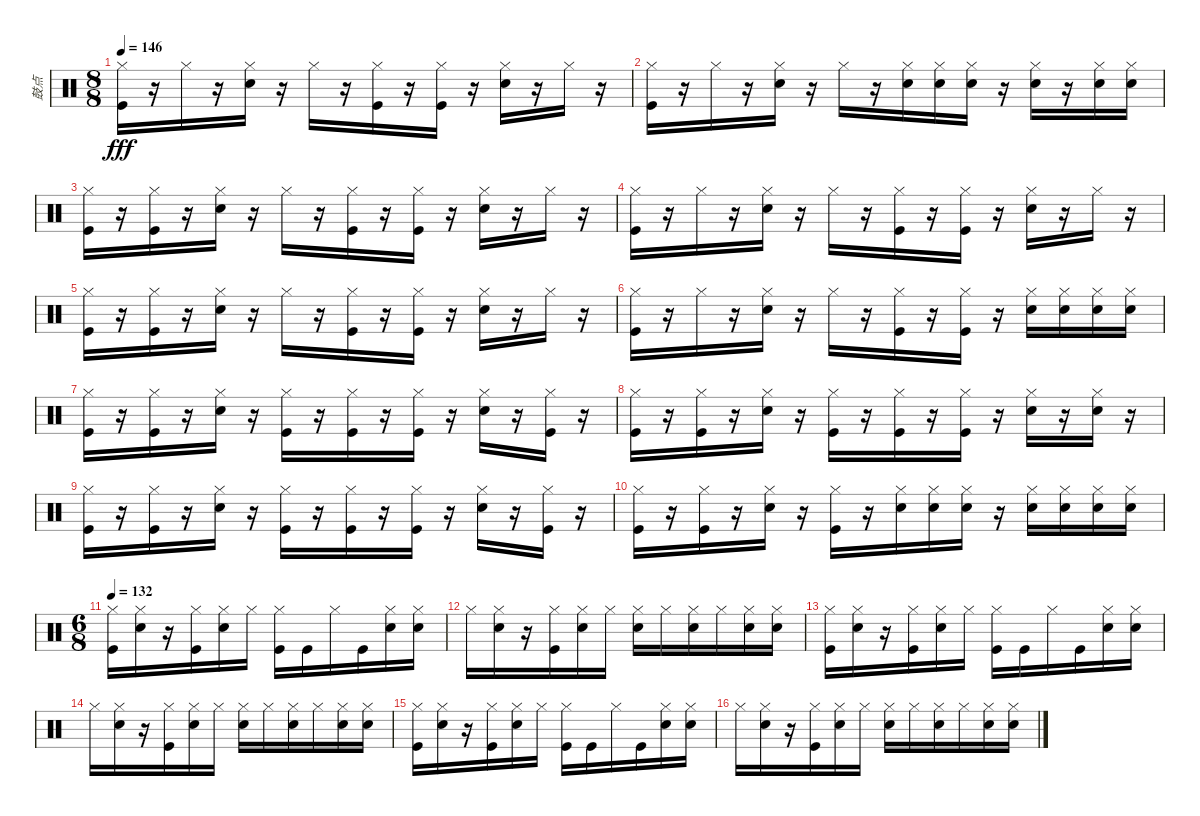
\track ("鼓点" "鼓点") {instrument percussion}
\staff {score}
\articulation defaults
\ts (8 8)
\tempo 146
\clef neutral
\ks c
("Kick (hit)" "Hi-Hat (closed)").16{dy fff} r.16 "Hi-Hat (closed)".16 r.16 ("Snare (hit) 2" "Hi-Hat (closed)").16 r.16 "Hi-Hat (closed)".16 r.16 ("Kick (hit)" "Hi-Hat (closed)").16 r.16 ("Kick (hit)" "Hi-Hat (closed)").16 r.16 ("Snare (hit) 2" "Hi-Hat (closed)").16 r.16 "Hi-Hat (closed)".16 r.16 |
("Kick (hit)" "Hi-Hat (closed)").16 r.16 "Hi-Hat (closed)".16 r.16 ("Snare (hit) 2" "Hi-Hat (closed)").16 r.16 "Hi-Hat (closed)".16 r.16 ("Snare (hit) 2" "Hi-Hat (closed)").16 ("Snare (hit) 2" "Hi-Hat (closed)").16 ("Snare (hit) 2" "Hi-Hat (closed)").16 r.16 ("Snare (hit) 2" "Hi-Hat (closed)").16 r.16 ("Snare (hit) 2" "Hi-Hat (closed)").16 ("Snare (hit) 2" "Hi-Hat (closed)").16 |
("Kick (hit)" "Hi-Hat (closed)").16 r.16 ("Kick (hit)" "Hi-Hat (closed)").16 r.16 ("Snare (hit) 2" "Hi-Hat (closed)").16 r.16 "Hi-Hat (closed)".16 r.16 ("Kick (hit)" "Hi-Hat (closed)").16 r.16 ("Kick (hit)" "Hi-Hat (closed)").16 r.16 ("Snare (hit) 2" "Hi-Hat (closed)").16 r.16 "Hi-Hat (closed)".16 r.16 |
("Kick (hit)" "Hi-Hat (closed)").16 r.16 "Hi-Hat (closed)".16 r.16 ("Snare (hit) 2" "Hi-Hat (closed)").16 r.16 "Hi-Hat (closed)".16 r.16 ("Kick (hit)" "Hi-Hat (closed)").16 r.16 ("Kick (hit)" "Hi-Hat (closed)").16 r.16 ("Snare (hit) 2" "Hi-Hat (closed)").16 r.16 "Hi-Hat (closed)".16 r.16 |
("Kick (hit)" "Hi-Hat (closed)").16 r.16 ("Kick (hit)" "Hi-Hat (closed)").16 r.16 ("Snare (hit) 2" "Hi-Hat (closed)").16 r.16 "Hi-Hat (closed)".16 r.16 ("Kick (hit)" "Hi-Hat (closed)").16 r.16 ("Kick (hit)" "Hi-Hat (closed)").16 r.16 ("Snare (hit) 2" "Hi-Hat (closed)").16 r.16 "Hi-Hat (closed)".16 r.16 |
("Kick (hit)" "Hi-Hat (closed)").16 r.16 "Hi-Hat (closed)".16 r.16 ("Snare (hit) 2" "Hi-Hat (closed)").16 r.16 "Hi-Hat (closed)".16 r.16 ("Kick (hit)" "Hi-Hat (closed)").16 r.16 ("Kick (hit)" "Hi-Hat (closed)").16 r.16 ("Snare (hit) 2" "Hi-Hat (closed)").16 ("Snare (hit) 2" "Hi-Hat (closed)").16 ("Snare (hit) 2" "Hi-Hat (closed)").16 ("Snare (hit) 2" "Hi-Hat (closed)").16 |
("Kick (hit)" "Hi-Hat (closed)").16 r.16 ("Kick (hit)" "Hi-Hat (closed)").16 r.16 ("Snare (hit) 2" "Hi-Hat (closed)").16 r.16 ("Kick (hit)" "Hi-Hat (closed)").16 r.16 ("Kick (hit)" "Hi-Hat (closed)").16 r.16 ("Kick (hit)" "Hi-Hat (closed)").16 r.16 ("Snare (hit) 2" "Hi-Hat (closed)").16 r.16 ("Kick (hit)" "Hi-Hat (closed)").16 r.16 |
("Kick (hit)" "Hi-Hat (closed)").16 r.16 ("Kick (hit)" "Hi-Hat (closed)").16 r.16 ("Snare (hit) 2" "Hi-Hat (closed)").16 r.16 ("Kick (hit)" "Hi-Hat (closed)").16 r.16 ("Kick (hit)" "Hi-Hat (closed)").16 r.16 ("Kick (hit)" "Hi-Hat (closed)").16 r.16 ("Snare (hit) 2" "Hi-Hat (closed)").16 r.16 ("Snare (hit) 2" "Hi-Hat (closed)").16 r.16 |
("Kick (hit)" "Hi-Hat (closed)").16 r.16 ("Kick (hit)" "Hi-Hat (closed)").16 r.16 ("Snare (hit) 2" "Hi-Hat (closed)").16 r.16 ("Kick (hit)" "Hi-Hat (closed)").16 r.16 ("Kick (hit)" "Hi-Hat (closed)").16 r.16 ("Kick (hit)" "Hi-Hat (closed)").16 r.16 ("Snare (hit) 2" "Hi-Hat (closed)").16 r.16 ("Kick (hit)" "Hi-Hat (closed)").16 r.16 |
("Kick (hit)" "Hi-Hat (closed)").16 r.16 ("Kick (hit)" "Hi-Hat (closed)").16 r.16 ("Snare (hit) 2" "Hi-Hat (closed)").16 r.16 ("Kick (hit)" "Hi-Hat (closed)").16 r.16 ("Snare (hit) 2" "Hi-Hat (closed)").16 ("Snare (hit) 2" "Hi-Hat (closed)").16 ("Snare (hit) 2" "Hi-Hat (closed)").16 r.16 ("Snare (hit) 2" "Hi-Hat (closed)").16 ("Snare (hit) 2" "Hi-Hat (closed)").16 ("Snare (hit) 2" "Hi-Hat (closed)").16 ("Snare (hit) 2" "Hi-Hat (closed)").16 |
\ts (6 8)
\tempo 132
("Kick (hit)" "Hi-Hat (closed)").16 ("Snare (hit) 2" "Hi-Hat (closed)").16 r.16 ("Kick (hit)" "Hi-Hat (closed)").16 ("Snare (hit) 2" "Hi-Hat (closed)").16 "Hi-Hat (closed)".16 ("Kick (hit)" "Hi-Hat (closed)").16 "Kick (hit)".16 "Hi-Hat (closed)".16 "Kick (hit)".16 ("Snare (hit) 2" "Hi-Hat (closed)").16 ("Snare (hit) 2" "Hi-Hat (closed)").16 |
"Hi-Hat (closed)".16 ("Snare (hit) 2" "Hi-Hat (closed)").16 r.16 ("Kick (hit)" "Hi-Hat (closed)").16 ("Snare (hit) 2" "Hi-Hat (closed)").16 "Hi-Hat (closed)".16 ("Snare (hit) 2" "Hi-Hat (closed)").16 "Hi-Hat (closed)".16 ("Snare (hit) 2" "Hi-Hat (closed)").16 "Hi-Hat (closed)".16 ("Snare (hit) 2" "Hi-Hat (closed)").16 ("Snare (hit) 2" "Hi-Hat (closed)").16 |
("Kick (hit)" "Hi-Hat (closed)").16 ("Snare (hit) 2" "Hi-Hat (closed)").16 r.16 ("Kick (hit)" "Hi-Hat (closed)").16 ("Snare (hit) 2" "Hi-Hat (closed)").16 "Hi-Hat (closed)".16 ("Kick (hit)" "Hi-Hat (closed)").16 "Kick (hit)".16 "Hi-Hat (closed)".16 "Kick (hit)".16 ("Snare (hit) 2" "Hi-Hat (closed)").16 ("Snare (hit) 2" "Hi-Hat (closed)").16 |
"Hi-Hat (closed)".16 ("Snare (hit) 2" "Hi-Hat (closed)").16 r.16 ("Kick (hit)" "Hi-Hat (closed)").16 ("Snare (hit) 2" "Hi-Hat (closed)").16 "Hi-Hat (closed)".16 ("Snare (hit) 2" "Hi-Hat (closed)").16 "Hi-Hat (closed)".16 ("Snare (hit) 2" "Hi-Hat (closed)").16 "Hi-Hat (closed)".16 ("Snare (hit) 2" "Hi-Hat (closed)").16 ("Snare (hit) 2" "Hi-Hat (closed)").16 |
("Kick (hit)" "Hi-Hat (closed)").16 ("Snare (hit) 2" "Hi-Hat (closed)").16 r.16 ("Kick (hit)" "Hi-Hat (closed)").16 ("Snare (hit) 2" "Hi-Hat (closed)").16 "Hi-Hat (closed)".16 ("Kick (hit)" "Hi-Hat (closed)").16 "Kick (hit)".16 "Hi-Hat (closed)".16 "Kick (hit)".16 ("Snare (hit) 2" "Hi-Hat (closed)").16 ("Snare (hit) 2" "Hi-Hat (closed)").16 |
"Hi-Hat (closed)".16 ("Snare (hit) 2" "Hi-Hat (closed)").16 r.16 ("Kick (hit)" "Hi-Hat (closed)").16 ("Snare (hit) 2" "Hi-Hat (closed)").16 "Hi-Hat (closed)".16 ("Snare (hit) 2" "Hi-Hat (closed)").16 "Hi-Hat (closed)".16 ("Snare (hit) 2" "Hi-Hat (closed)").16 "Hi-Hat (closed)".16 ("Snare (hit) 2" "Hi-Hat (closed)").16 ("Snare (hit) 2" "Hi-Hat (closed)").16
